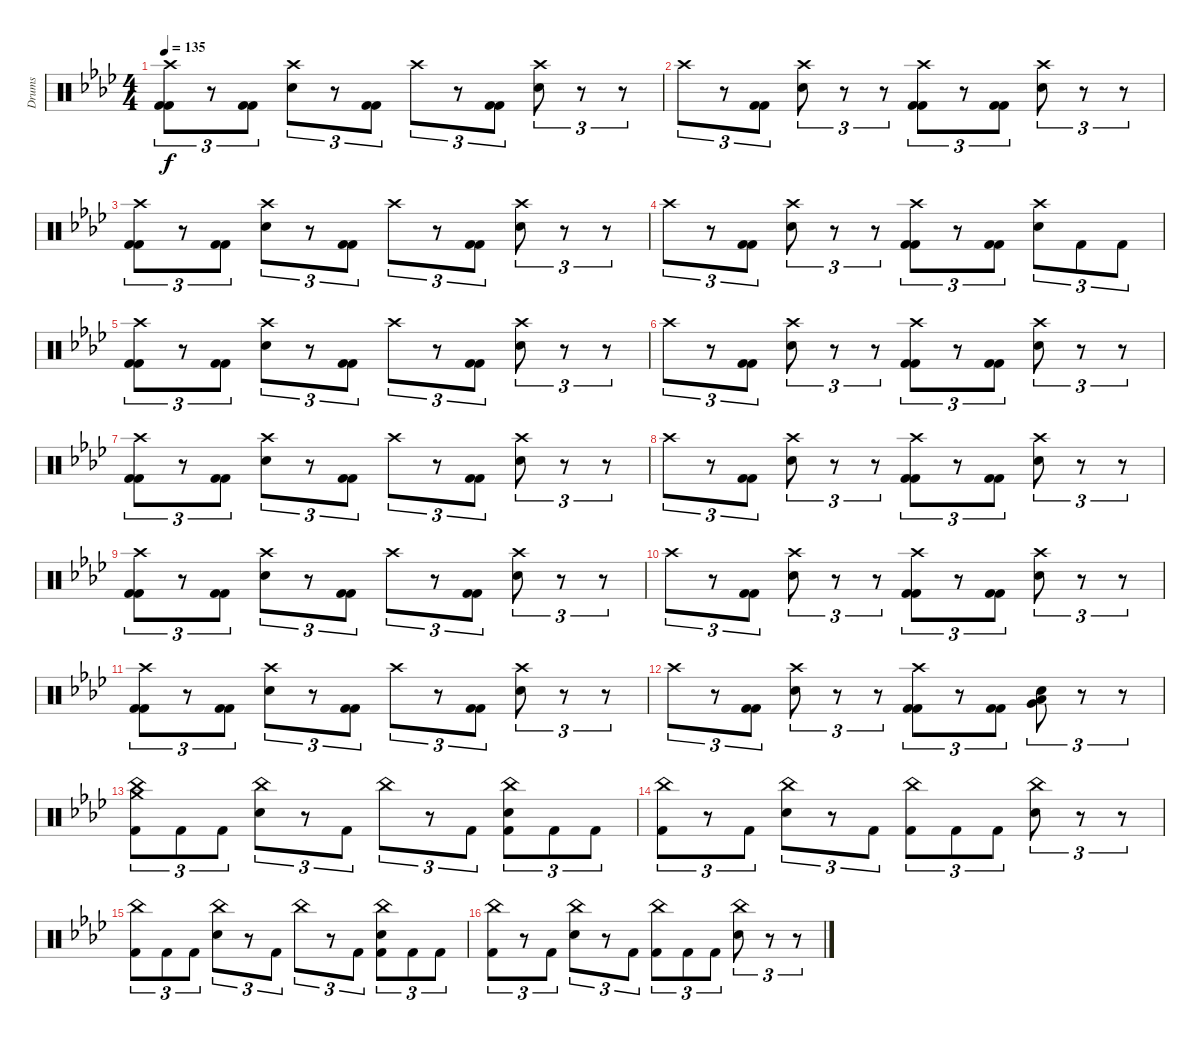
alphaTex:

\track ("Drums" "Drums") {instrument percussion}
\staff {score}
\articulation defaults
\ts (4 4)
\tempo 135
\clef neutral
\ks ab
("Crash high (hit)" "Kick (hit) 2" "Kick (hit) 2").8{tu (3 2) dy f} r.8{tu (3 2)} ("Kick (hit) 2" "Kick (hit) 2").8{tu (3 2)} ("Crash high (hit)" "Electric Snare (hit)").8{tu (3 2)} r.8{tu (3 2)} ("Kick (hit) 2" "Kick (hit) 2").8{tu (3 2)} "Crash high (hit)".8{tu (3 2)} r.8{tu (3 2)} ("Kick (hit) 2" "Kick (hit) 2").8{tu (3 2)} ("Crash high (hit)" "Electric Snare (hit)").8{tu (3 2)} r.8{tu (3 2)} r.8{tu (3 2)} |
"Crash high (hit)".8{tu (3 2)} r.8{tu (3 2)} ("Kick (hit) 2" "Kick (hit) 2").8{tu (3 2)} ("Crash high (hit)" "Electric Snare (hit)").8{tu (3 2)} r.8{tu (3 2)} r.8{tu (3 2)} ("Crash high (hit)" "Kick (hit) 2" "Kick (hit) 2").8{tu (3 2)} r.8{tu (3 2)} ("Kick (hit) 2" "Kick (hit) 2").8{tu (3 2)} ("Crash high (hit)" "Electric Snare (hit)").8{tu (3 2)} r.8{tu (3 2)} r.8{tu (3 2)} |
("Crash high (hit)" "Kick (hit) 2" "Kick (hit) 2").8{tu (3 2)} r.8{tu (3 2)} ("Kick (hit) 2" "Kick (hit) 2").8{tu (3 2)} ("Crash high (hit)" "Electric Snare (hit)").8{tu (3 2)} r.8{tu (3 2)} ("Kick (hit) 2" "Kick (hit) 2").8{tu (3 2)} "Crash high (hit)".8{tu (3 2)} r.8{tu (3 2)} ("Kick (hit) 2" "Kick (hit) 2").8{tu (3 2)} ("Crash high (hit)" "Electric Snare (hit)").8{tu (3 2)} r.8{tu (3 2)} r.8{tu (3 2)} |
"Crash high (hit)".8{tu (3 2)} r.8{tu (3 2)} ("Kick (hit) 2" "Kick (hit) 2").8{tu (3 2)} ("Crash high (hit)" "Electric Snare (hit)").8{tu (3 2)} r.8{tu (3 2)} r.8{tu (3 2)} ("Crash high (hit)" "Kick (hit) 2" "Kick (hit) 2").8{tu (3 2)} r.8{tu (3 2)} ("Kick (hit) 2" "Kick (hit) 2").8{tu (3 2)} ("Crash high (hit)" "Electric Snare (hit)").8{tu (3 2)} "Kick (hit) 2".8{tu (3 2)} "Kick (hit) 2".8{tu (3 2)} |
("Crash high (hit)" "Kick (hit) 2" "Kick (hit) 2").8{tu (3 2)} r.8{tu (3 2)} ("Kick (hit) 2" "Kick (hit) 2").8{tu (3 2)} ("Crash high (hit)" "Electric Snare (hit)").8{tu (3 2)} r.8{tu (3 2)} ("Kick (hit) 2" "Kick (hit) 2").8{tu (3 2)} "Crash high (hit)".8{tu (3 2)} r.8{tu (3 2)} ("Kick (hit) 2" "Kick (hit) 2").8{tu (3 2)} ("Crash high (hit)" "Electric Snare (hit)").8{tu (3 2)} r.8{tu (3 2)} r.8{tu (3 2)} |
"Crash high (hit)".8{tu (3 2)} r.8{tu (3 2)} ("Kick (hit) 2" "Kick (hit) 2").8{tu (3 2)} ("Crash high (hit)" "Electric Snare (hit)").8{tu (3 2)} r.8{tu (3 2)} r.8{tu (3 2)} ("Crash high (hit)" "Kick (hit) 2" "Kick (hit) 2").8{tu (3 2)} r.8{tu (3 2)} ("Kick (hit) 2" "Kick (hit) 2").8{tu (3 2)} ("Crash high (hit)" "Electric Snare (hit)").8{tu (3 2)} r.8{tu (3 2)} r.8{tu (3 2)} |
("Crash high (hit)" "Kick (hit) 2" "Kick (hit) 2").8{tu (3 2)} r.8{tu (3 2)} ("Kick (hit) 2" "Kick (hit) 2").8{tu (3 2)} ("Crash high (hit)" "Electric Snare (hit)").8{tu (3 2)} r.8{tu (3 2)} ("Kick (hit) 2" "Kick (hit) 2").8{tu (3 2)} "Crash high (hit)".8{tu (3 2)} r.8{tu (3 2)} ("Kick (hit) 2" "Kick (hit) 2").8{tu (3 2)} ("Crash high (hit)" "Electric Snare (hit)").8{tu (3 2)} r.8{tu (3 2)} r.8{tu (3 2)} |
"Crash high (hit)".8{tu (3 2)} r.8{tu (3 2)} ("Kick (hit) 2" "Kick (hit) 2").8{tu (3 2)} ("Crash high (hit)" "Electric Snare (hit)").8{tu (3 2)} r.8{tu (3 2)} r.8{tu (3 2)} ("Crash high (hit)" "Kick (hit) 2" "Kick (hit) 2").8{tu (3 2)} r.8{tu (3 2)} ("Kick (hit) 2" "Kick (hit) 2").8{tu (3 2)} ("Crash high (hit)" "Electric Snare (hit)").8{tu (3 2)} r.8{tu (3 2)} r.8{tu (3 2)} |
("Crash high (hit)" "Kick (hit) 2" "Kick (hit) 2").8{tu (3 2)} r.8{tu (3 2)} ("Kick (hit) 2" "Kick (hit) 2").8{tu (3 2)} ("Crash high (hit)" "Electric Snare (hit)").8{tu (3 2)} r.8{tu (3 2)} ("Kick (hit) 2" "Kick (hit) 2").8{tu (3 2)} "Crash high (hit)".8{tu (3 2)} r.8{tu (3 2)} ("Kick (hit) 2" "Kick (hit) 2").8{tu (3 2)} ("Crash high (hit)" "Electric Snare (hit)").8{tu (3 2)} r.8{tu (3 2)} r.8{tu (3 2)} |
"Crash high (hit)".8{tu (3 2)} r.8{tu (3 2)} ("Kick (hit) 2" "Kick (hit) 2").8{tu (3 2)} ("Crash high (hit)" "Electric Snare (hit)").8{tu (3 2)} r.8{tu (3 2)} r.8{tu (3 2)} ("Crash high (hit)" "Kick (hit) 2" "Kick (hit) 2").8{tu (3 2)} r.8{tu (3 2)} ("Kick (hit) 2" "Kick (hit) 2").8{tu (3 2)} ("Crash high (hit)" "Electric Snare (hit)").8{tu (3 2)} r.8{tu (3 2)} r.8{tu (3 2)} |
("Crash high (hit)" "Kick (hit) 2" "Kick (hit) 2").8{tu (3 2)} r.8{tu (3 2)} ("Kick (hit) 2" "Kick (hit) 2").8{tu (3 2)} ("Crash high (hit)" "Electric Snare (hit)").8{tu (3 2)} r.8{tu (3 2)} ("Kick (hit) 2" "Kick (hit) 2").8{tu (3 2)} "Crash high (hit)".8{tu (3 2)} r.8{tu (3 2)} ("Kick (hit) 2" "Kick (hit) 2").8{tu (3 2)} ("Crash high (hit)" "Electric Snare (hit)").8{tu (3 2)} r.8{tu (3 2)} r.8{tu (3 2)} |
"Crash high (hit)".8{tu (3 2)} r.8{tu (3 2)} ("Kick (hit) 2" "Kick (hit) 2").8{tu (3 2)} ("Crash high (hit)" "Electric Snare (hit)").8{tu (3 2)} r.8{tu (3 2)} r.8{tu (3 2)} ("Crash high (hit)" "Kick (hit) 2" "Kick (hit) 2").8{tu (3 2)} r.8{tu (3 2)} ("Kick (hit) 2" "Kick (hit) 2").8{tu (3 2)} ("Electric Snare (hit)" "Very Low Tom (hit)" "Low Floor Tom (hit)").8{tu (3 2)} r.8{tu (3 2)} r.8{tu (3 2)} |
("Crash medium (hit)" "China (hit)" "Kick (hit) 2").8{tu (3 2)} "Kick (hit) 2".8{tu (3 2)} "Kick (hit) 2".8{tu (3 2)} ("China (hit)" "Electric Snare (hit)").8{tu (3 2)} r.8{tu (3 2)} "Kick (hit) 2".8{tu (3 2)} "China (hit)".8{tu (3 2)} r.8{tu (3 2)} "Kick (hit) 2".8{tu (3 2)} ("China (hit)" "Electric Snare (hit)" "Kick (hit) 2").8{tu (3 2)} "Kick (hit) 2".8{tu (3 2)} "Kick (hit) 2".8{tu (3 2)} |
("China (hit)" "Kick (hit) 2").8{tu (3 2)} r.8{tu (3 2)} "Kick (hit) 2".8{tu (3 2)} ("China (hit)" "Electric Snare (hit)").8{tu (3 2)} r.8{tu (3 2)} "Kick (hit) 2".8{tu (3 2)} ("China (hit)" "Kick (hit) 2").8{tu (3 2)} "Kick (hit) 2".8{tu (3 2)} "Kick (hit) 2".8{tu (3 2)} ("China (hit)" "Electric Snare (hit)").8{tu (3 2)} r.8{tu (3 2)} r.8{tu (3 2)} |
("China (hit)" "Kick (hit) 2").8{tu (3 2)} "Kick (hit) 2".8{tu (3 2)} "Kick (hit) 2".8{tu (3 2)} ("China (hit)" "Electric Snare (hit)").8{tu (3 2)} r.8{tu (3 2)} "Kick (hit) 2".8{tu (3 2)} "China (hit)".8{tu (3 2)} r.8{tu (3 2)} "Kick (hit) 2".8{tu (3 2)} ("China (hit)" "Electric Snare (hit)" "Kick (hit) 2").8{tu (3 2)} "Kick (hit) 2".8{tu (3 2)} "Kick (hit) 2".8{tu (3 2)} |
("China (hit)" "Kick (hit) 2").8{tu (3 2)} r.8{tu (3 2)} "Kick (hit) 2".8{tu (3 2)} ("China (hit)" "Electric Snare (hit)").8{tu (3 2)} r.8{tu (3 2)} "Kick (hit) 2".8{tu (3 2)} ("China (hit)" "Kick (hit) 2").8{tu (3 2)} "Kick (hit) 2".8{tu (3 2)} "Kick (hit) 2".8{tu (3 2)} ("China (hit)" "Electric Snare (hit)").8{tu (3 2)} r.8{tu (3 2)} r.8{tu (3 2)}
